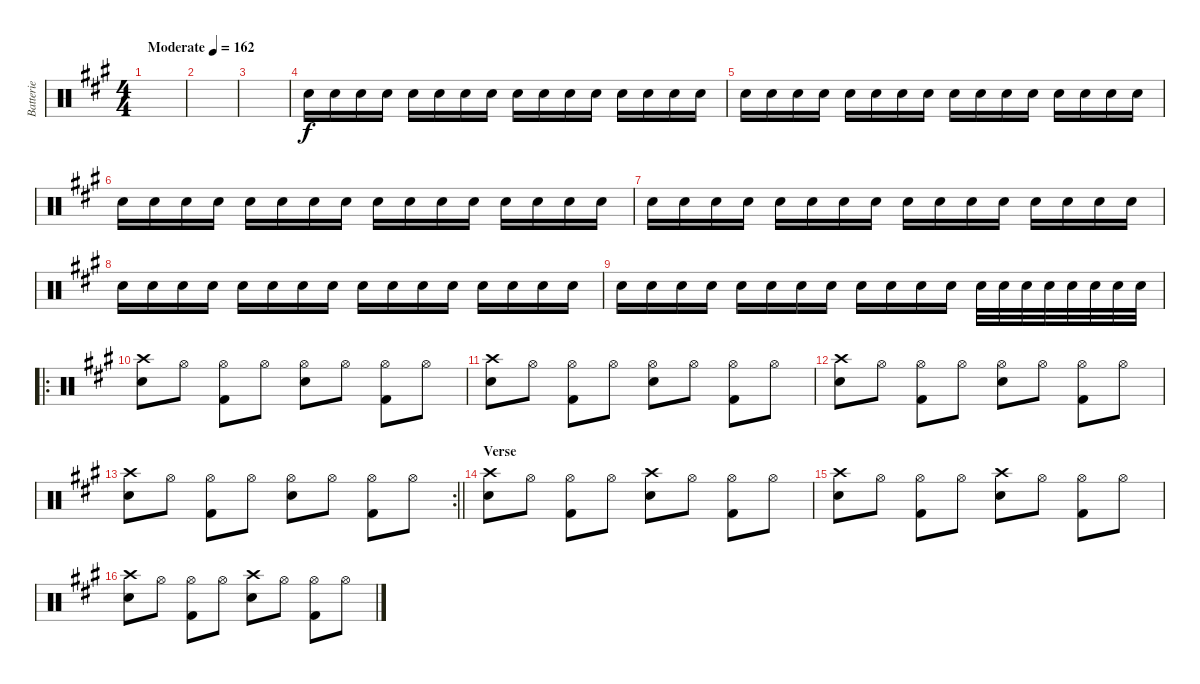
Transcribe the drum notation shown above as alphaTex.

\track ("Batterie" "Batterie") {instrument percussion}
\staff {score}
\articulation defaults
\ts (4 4)
\tempo (162 "Moderate")
\clef neutral
\ks a
|
|
|
"Snare (hit) 2".16 "Snare (hit) 2".16 "Snare (hit) 2".16 "Snare (hit) 2".16 "Snare (hit) 2".16 "Snare (hit) 2".16 "Snare (hit) 2".16 "Snare (hit) 2".16 "Snare (hit) 2".16 "Snare (hit) 2".16 "Snare (hit) 2".16 "Snare (hit) 2".16 "Snare (hit) 2".16 "Snare (hit) 2".16 "Snare (hit) 2".16 "Snare (hit) 2".16 |
"Snare (hit) 2".16 "Snare (hit) 2".16 "Snare (hit) 2".16 "Snare (hit) 2".16 "Snare (hit) 2".16 "Snare (hit) 2".16 "Snare (hit) 2".16 "Snare (hit) 2".16 "Snare (hit) 2".16 "Snare (hit) 2".16 "Snare (hit) 2".16 "Snare (hit) 2".16 "Snare (hit) 2".16 "Snare (hit) 2".16 "Snare (hit) 2".16 "Snare (hit) 2".16 |
"Snare (hit) 2".16 "Snare (hit) 2".16 "Snare (hit) 2".16 "Snare (hit) 2".16 "Snare (hit) 2".16 "Snare (hit) 2".16 "Snare (hit) 2".16 "Snare (hit) 2".16 "Snare (hit) 2".16 "Snare (hit) 2".16 "Snare (hit) 2".16 "Snare (hit) 2".16 "Snare (hit) 2".16 "Snare (hit) 2".16 "Snare (hit) 2".16 "Snare (hit) 2".16 |
"Snare (hit) 2".16 "Snare (hit) 2".16 "Snare (hit) 2".16 "Snare (hit) 2".16 "Snare (hit) 2".16 "Snare (hit) 2".16 "Snare (hit) 2".16 "Snare (hit) 2".16 "Snare (hit) 2".16 "Snare (hit) 2".16 "Snare (hit) 2".16 "Snare (hit) 2".16 "Snare (hit) 2".16 "Snare (hit) 2".16 "Snare (hit) 2".16 "Snare (hit) 2".16 |
"Snare (hit) 2".16 "Snare (hit) 2".16 "Snare (hit) 2".16 "Snare (hit) 2".16 "Snare (hit) 2".16 "Snare (hit) 2".16 "Snare (hit) 2".16 "Snare (hit) 2".16 "Snare (hit) 2".16 "Snare (hit) 2".16 "Snare (hit) 2".16 "Snare (hit) 2".16 "Snare (hit) 2".16 "Snare (hit) 2".16 "Snare (hit) 2".16 "Snare (hit) 2".16 |
"Snare (hit) 2".16 "Snare (hit) 2".16 "Snare (hit) 2".16 "Snare (hit) 2".16 "Snare (hit) 2".16 "Snare (hit) 2".16 "Snare (hit) 2".16 "Snare (hit) 2".16 "Snare (hit) 2".16 "Snare (hit) 2".16 "Snare (hit) 2".16 "Snare (hit) 2".16 "Snare (hit) 2".32 "Snare (hit) 2".32 "Snare (hit) 2".32 "Snare (hit) 2".32 "Snare (hit) 2".32 "Snare (hit) 2".32 "Snare (hit) 2".32 "Snare (hit) 2".32 |
\ro
("Crash high (hit)" "Snare (hit) 2").8 "Hi-Hat (open)".8 ("Hi-Hat (open)" "Kick (hit) 2").8 "Hi-Hat (open)".8 ("Hi-Hat (open)" "Snare (hit) 2").8 "Hi-Hat (open)".8 ("Hi-Hat (open)" "Kick (hit) 2").8 "Hi-Hat (open)".8 |
("Crash high (hit)" "Snare (hit) 2").8 "Hi-Hat (open)".8 ("Hi-Hat (open)" "Kick (hit) 2").8 "Hi-Hat (open)".8 ("Hi-Hat (open)" "Snare (hit) 2").8 "Hi-Hat (open)".8 ("Hi-Hat (open)" "Kick (hit) 2").8 "Hi-Hat (open)".8 |
("Crash high (hit)" "Snare (hit) 2").8 "Hi-Hat (open)".8 ("Hi-Hat (open)" "Kick (hit) 2").8 "Hi-Hat (open)".8 ("Hi-Hat (open)" "Snare (hit) 2").8 "Hi-Hat (open)".8 ("Hi-Hat (open)" "Kick (hit) 2").8 "Hi-Hat (open)".8 |
\rc 2
\barLineRight lightlight
("Crash high (hit)" "Snare (hit) 2").8 "Hi-Hat (open)".8 ("Hi-Hat (open)" "Kick (hit) 2").8 "Hi-Hat (open)".8 ("Hi-Hat (open)" "Snare (hit) 2").8 "Hi-Hat (open)".8 ("Hi-Hat (open)" "Kick (hit) 2").8 "Hi-Hat (open)".8 |
\section ("" "Verse")
("Crash high (hit)" "Snare (hit) 2").8 "Hi-Hat (open)".8 ("Hi-Hat (open)" "Kick (hit) 2").8 "Hi-Hat (open)".8 ("Crash high (hit)" "Snare (hit) 2").8 "Hi-Hat (open)".8 ("Hi-Hat (open)" "Kick (hit) 2").8 "Hi-Hat (open)".8 |
("Crash high (hit)" "Snare (hit) 2").8 "Hi-Hat (open)".8 ("Hi-Hat (open)" "Kick (hit) 2").8 "Hi-Hat (open)".8 ("Crash high (hit)" "Snare (hit) 2").8 "Hi-Hat (open)".8 ("Hi-Hat (open)" "Kick (hit) 2").8 "Hi-Hat (open)".8 |
("Crash high (hit)" "Snare (hit) 2").8 "Hi-Hat (open)".8 ("Hi-Hat (open)" "Kick (hit) 2").8 "Hi-Hat (open)".8 ("Crash high (hit)" "Snare (hit) 2").8 "Hi-Hat (open)".8 ("Hi-Hat (open)" "Kick (hit) 2").8 "Hi-Hat (open)".8
